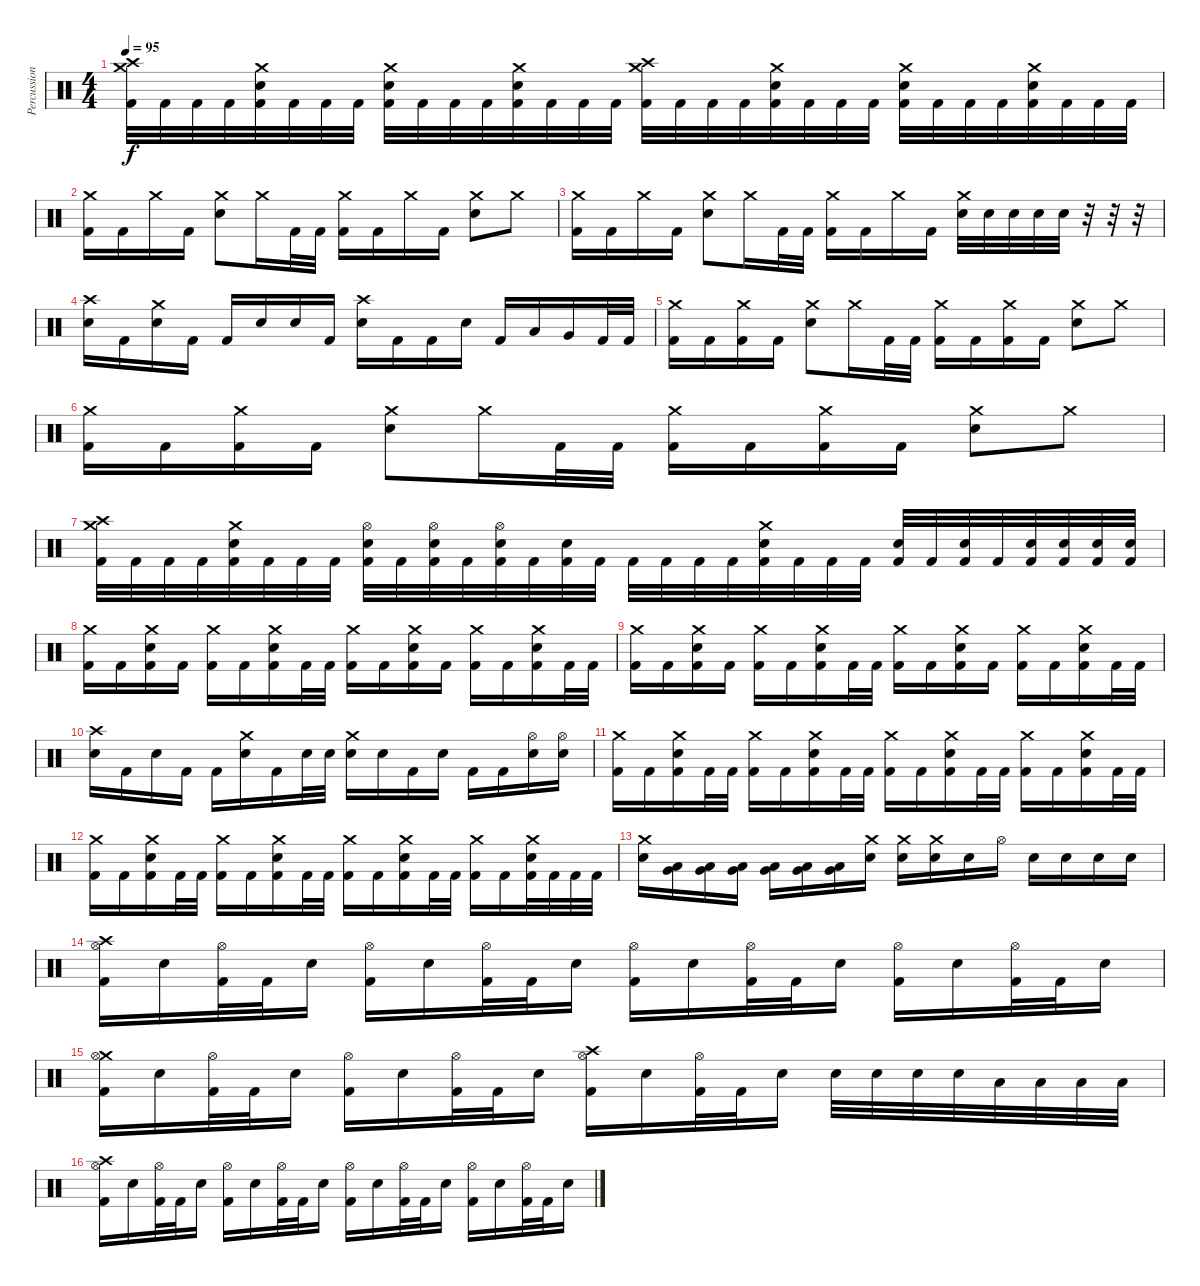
\track ("Percussion" "Percussion") {instrument percussion}
\staff {score}
\articulation defaults
\ts (4 4)
\tempo 95
\clef neutral
\ks c
("Crash high (hit)" "Crash medium (hit)" "Kick (hit) 2").32{dy f} "Kick (hit) 2".32 "Kick (hit) 2".32 "Kick (hit) 2".32 ("Crash medium (hit)" "Electric Snare (hit)" "Kick (hit) 2").32 "Kick (hit) 2".32 "Kick (hit) 2".32 "Kick (hit) 2".32 ("Crash medium (hit)" "Electric Snare (hit)" "Kick (hit) 2").32 "Kick (hit) 2".32 "Kick (hit) 2".32 "Kick (hit) 2".32 ("Crash medium (hit)" "Electric Snare (hit)" "Kick (hit) 2").32 "Kick (hit) 2".32 "Kick (hit) 2".32 "Kick (hit) 2".32 ("Crash high (hit)" "Crash medium (hit)" "Kick (hit) 2").32 "Kick (hit) 2".32 "Kick (hit) 2".32 "Kick (hit) 2".32 ("Crash medium (hit)" "Electric Snare (hit)" "Kick (hit) 2").32 "Kick (hit) 2".32 "Kick (hit) 2".32 "Kick (hit) 2".32 ("Crash medium (hit)" "Electric Snare (hit)" "Kick (hit) 2").32 "Kick (hit) 2".32 "Kick (hit) 2".32 "Kick (hit) 2".32 ("Crash medium (hit)" "Electric Snare (hit)" "Kick (hit) 2").32 "Kick (hit) 2".32 "Kick (hit) 2".32 "Kick (hit) 2".32 |
("Crash medium (hit)" "Kick (hit) 2").16 "Kick (hit) 2".16 "Crash medium (hit)".16 "Kick (hit) 2".16 ("Crash medium (hit)" "Electric Snare (hit)").8 "Crash medium (hit)".16 "Kick (hit) 2".32 "Kick (hit) 2".32 ("Crash medium (hit)" "Kick (hit) 2").16 "Kick (hit) 2".16 "Crash medium (hit)".16 "Kick (hit) 2".16 ("Crash medium (hit)" "Electric Snare (hit)").8 "Crash medium (hit)".8 |
("Crash medium (hit)" "Kick (hit) 2").16 "Kick (hit) 2".16 "Crash medium (hit)".16 "Kick (hit) 2".16 ("Crash medium (hit)" "Electric Snare (hit)").8 "Crash medium (hit)".16 "Kick (hit) 2".32 "Kick (hit) 2".32 ("Crash medium (hit)" "Kick (hit) 2").16 "Kick (hit) 2".16 "Crash medium (hit)".16 "Kick (hit) 2".16 ("Crash medium (hit)" "Electric Snare (hit)").32 "Electric Snare (hit)".32 "Electric Snare (hit)".32 "Electric Snare (hit)".32 "Electric Snare (hit)".32 r.32 r.32 r.32 |
("Crash high (hit)" "Electric Snare (hit)").16 "Kick (hit) 2".16 ("Crash medium (hit)" "Electric Snare (hit)").16 "Kick (hit) 2".16 "Kick (hit) 2".16 "Electric Snare (hit)".16 "Electric Snare (hit)".16 "Kick (hit) 2".16 ("Crash high (hit)" "Electric Snare (hit)").16 "Kick (hit) 2".16 "Kick (hit) 2".16 "Electric Snare (hit)".16 "Kick (hit) 2".16 "Low Tom (hit)".16 "Very Low Tom (hit)".16 "Kick (hit) 2".32 "Kick (hit) 2".32 |
("Crash medium (hit)" "Kick (hit) 2").16 "Kick (hit) 2".16 ("Crash medium (hit)" "Kick (hit) 2").16 "Kick (hit) 2".16 ("Crash medium (hit)" "Electric Snare (hit)").8 "Crash medium (hit)".16 "Kick (hit) 2".32 "Kick (hit) 2".32 ("Crash medium (hit)" "Kick (hit) 2").16 "Kick (hit) 2".16 ("Crash medium (hit)" "Kick (hit) 2").16 "Kick (hit) 2".16 ("Crash medium (hit)" "Electric Snare (hit)").8 "Crash medium (hit)".8 |
("Crash medium (hit)" "Kick (hit) 2").16 "Kick (hit) 2".16 ("Crash medium (hit)" "Kick (hit) 2").16 "Kick (hit) 2".16 ("Crash medium (hit)" "Electric Snare (hit)").8 "Crash medium (hit)".16 "Kick (hit) 2".32 "Kick (hit) 2".32 ("Crash medium (hit)" "Kick (hit) 2").16 "Kick (hit) 2".16 ("Crash medium (hit)" "Kick (hit) 2").16 "Kick (hit) 2".16 ("Crash medium (hit)" "Electric Snare (hit)").8 "Crash medium (hit)".8 |
("Crash high (hit)" "Crash medium (hit)" "Kick (hit) 2").32 "Kick (hit) 2".32 "Kick (hit) 2".32 "Kick (hit) 2".32 ("Crash medium (hit)" "Electric Snare (hit)" "Kick (hit) 2").32 "Kick (hit) 2".32 "Kick (hit) 2".32 "Kick (hit) 2".32 ("Hi-Hat (open)" "Electric Snare (hit)" "Kick (hit) 2").32 "Kick (hit) 2".32 ("Hi-Hat (open)" "Electric Snare (hit)" "Kick (hit) 2").32 "Kick (hit) 2".32 ("Hi-Hat (open)" "Electric Snare (hit)" "Kick (hit) 2").32 "Kick (hit) 2".32 ("Electric Snare (hit)" "Kick (hit) 2").32 "Kick (hit) 2".32 "Kick (hit) 2".32 "Kick (hit) 2".32 "Kick (hit) 2".32 "Kick (hit) 2".32 ("Crash medium (hit)" "Electric Snare (hit)" "Kick (hit) 2").32 "Kick (hit) 2".32 "Kick (hit) 2".32 "Kick (hit) 2".32 ("Electric Snare (hit)" "Kick (hit) 2").32 "Kick (hit) 2".32 ("Electric Snare (hit)" "Kick (hit) 2").32 "Kick (hit) 2".32 ("Electric Snare (hit)" "Kick (hit) 2").32 ("Electric Snare (hit)" "Kick (hit) 2").32 ("Electric Snare (hit)" "Kick (hit) 2").32 ("Electric Snare (hit)" "Kick (hit) 2").32 |
("Crash medium (hit)" "Kick (hit) 2").16 "Kick (hit) 2".16 ("Crash medium (hit)" "Electric Snare (hit)" "Kick (hit) 2").16 "Kick (hit) 2".16 ("Crash medium (hit)" "Kick (hit) 2").16 "Kick (hit) 2".16 ("Crash medium (hit)" "Electric Snare (hit)" "Kick (hit) 2").16 "Kick (hit) 2".32 "Kick (hit) 2".32 ("Crash medium (hit)" "Kick (hit) 2").16 "Kick (hit) 2".16 ("Crash medium (hit)" "Electric Snare (hit)" "Kick (hit) 2").16 "Kick (hit) 2".16 ("Crash medium (hit)" "Kick (hit) 2").16 "Kick (hit) 2".16 ("Crash medium (hit)" "Electric Snare (hit)" "Kick (hit) 2").16 "Kick (hit) 2".32 "Kick (hit) 2".32 |
("Crash medium (hit)" "Kick (hit) 2").16 "Kick (hit) 2".16 ("Crash medium (hit)" "Electric Snare (hit)" "Kick (hit) 2").16 "Kick (hit) 2".16 ("Crash medium (hit)" "Kick (hit) 2").16 "Kick (hit) 2".16 ("Crash medium (hit)" "Electric Snare (hit)" "Kick (hit) 2").16 "Kick (hit) 2".32 "Kick (hit) 2".32 ("Crash medium (hit)" "Kick (hit) 2").16 "Kick (hit) 2".16 ("Crash medium (hit)" "Electric Snare (hit)" "Kick (hit) 2").16 "Kick (hit) 2".16 ("Crash medium (hit)" "Kick (hit) 2").16 "Kick (hit) 2".16 ("Crash medium (hit)" "Electric Snare (hit)" "Kick (hit) 2").16 "Kick (hit) 2".32 "Kick (hit) 2".32 |
("Crash high (hit)" "Electric Snare (hit)").16 "Kick (hit) 2".16 "Electric Snare (hit)".16 "Kick (hit) 2".16 "Kick (hit) 2".16 ("Crash medium (hit)" "Electric Snare (hit)").16 "Kick (hit) 2".16 "Electric Snare (hit)".32 "Electric Snare (hit)".32 ("Crash medium (hit)" "Electric Snare (hit)").16 "Electric Snare (hit)".16 "Kick (hit) 2".16 "Electric Snare (hit)".16 "Kick (hit) 2".16 "Kick (hit) 2".16 ("Hi-Hat (open)" "Electric Snare (hit)").16 ("Hi-Hat (open)" "Electric Snare (hit)").16 |
("Crash medium (hit)" "Kick (hit) 2").16 "Kick (hit) 2".16 ("Crash medium (hit)" "Electric Snare (hit)" "Kick (hit) 2").16 "Kick (hit) 2".32 "Kick (hit) 2".32 ("Crash medium (hit)" "Kick (hit) 2").16 "Kick (hit) 2".16 ("Crash medium (hit)" "Electric Snare (hit)" "Kick (hit) 2").16 "Kick (hit) 2".32 "Kick (hit) 2".32 ("Crash medium (hit)" "Kick (hit) 2").16 "Kick (hit) 2".16 ("Crash medium (hit)" "Electric Snare (hit)" "Kick (hit) 2").16 "Kick (hit) 2".32 "Kick (hit) 2".32 ("Crash medium (hit)" "Kick (hit) 2").16 "Kick (hit) 2".16 ("Crash medium (hit)" "Electric Snare (hit)" "Kick (hit) 2").16 "Kick (hit) 2".32 "Kick (hit) 2".32 |
("Crash medium (hit)" "Kick (hit) 2").16 "Kick (hit) 2".16 ("Crash medium (hit)" "Electric Snare (hit)" "Kick (hit) 2").16 "Kick (hit) 2".32 "Kick (hit) 2".32 ("Crash medium (hit)" "Kick (hit) 2").16 "Kick (hit) 2".16 ("Crash medium (hit)" "Electric Snare (hit)" "Kick (hit) 2").16 "Kick (hit) 2".32 "Kick (hit) 2".32 ("Crash medium (hit)" "Kick (hit) 2").16 "Kick (hit) 2".16 ("Crash medium (hit)" "Electric Snare (hit)" "Kick (hit) 2").16 "Kick (hit) 2".32 "Kick (hit) 2".32 ("Crash medium (hit)" "Kick (hit) 2").16 "Kick (hit) 2".16 ("Crash medium (hit)" "Electric Snare (hit)" "Kick (hit) 2").32 "Kick (hit) 2".32 "Kick (hit) 2".32 "Kick (hit) 2".32 |
("Crash medium (hit)" "Electric Snare (hit)").16 ("Very Low Tom (hit)" "Low Tom (hit)").16 ("Very Low Tom (hit)" "Low Tom (hit)").16 ("Very Low Tom (hit)" "Low Tom (hit)").16 ("Very Low Tom (hit)" "Low Tom (hit)").16 ("Low Floor Tom (hit)" "Very Low Tom (hit)").16 ("Low Floor Tom (hit)" "Very Low Tom (hit)").16 ("Crash medium (hit)" "Electric Snare (hit)").16 ("Crash medium (hit)" "Electric Snare (hit)").16 ("Crash medium (hit)" "Electric Snare (hit)").16 "Electric Snare (hit)".16 "Hi-Hat (open)".16 "Electric Snare (hit)".16 "Electric Snare (hit)".16 "Electric Snare (hit)".16 "Electric Snare (hit)".16 |
("Crash high (hit)" "Hi-Hat (open)" "Kick (hit) 2").16 "Electric Snare (hit)".16 ("Hi-Hat (open)" "Kick (hit) 2").32 "Kick (hit) 2".32 "Electric Snare (hit)".16 ("Hi-Hat (open)" "Kick (hit) 2").16 "Electric Snare (hit)".16 ("Hi-Hat (open)" "Kick (hit) 2").32 "Kick (hit) 2".32 "Electric Snare (hit)".16 ("Hi-Hat (open)" "Kick (hit) 2").16 "Electric Snare (hit)".16 ("Hi-Hat (open)" "Kick (hit) 2").32 "Kick (hit) 2".32 "Electric Snare (hit)".16 ("Hi-Hat (open)" "Kick (hit) 2").16 "Electric Snare (hit)".16 ("Hi-Hat (open)" "Kick (hit) 2").32 "Kick (hit) 2".32 "Electric Snare (hit)".16 |
("Crash medium (hit)" "Hi-Hat (open)" "Kick (hit) 2").16 "Electric Snare (hit)".16 ("Hi-Hat (open)" "Kick (hit) 2").32 "Kick (hit) 2".32 "Electric Snare (hit)".16 ("Hi-Hat (open)" "Kick (hit) 2").16 "Electric Snare (hit)".16 ("Hi-Hat (open)" "Kick (hit) 2").32 "Kick (hit) 2".32 "Electric Snare (hit)".16 ("Crash high (hit)" "Hi-Hat (open)" "Kick (hit) 2").16 "Electric Snare (hit)".16 ("Hi-Hat (open)" "Kick (hit) 2").32 "Kick (hit) 2".32 "Electric Snare (hit)".16 "Electric Snare (hit)".32 "Electric Snare (hit)".32 "Electric Snare (hit)".32 "Electric Snare (hit)".32 "Low Tom (hit)".32 "Low Tom (hit)".32 "Low Tom (hit)".32 "Low Tom (hit)".32 |
("Crash high (hit)" "Hi-Hat (open)" "Kick (hit) 2").16 "Electric Snare (hit)".16 ("Hi-Hat (open)" "Kick (hit) 2").32 "Kick (hit) 2".32 "Electric Snare (hit)".16 ("Hi-Hat (open)" "Kick (hit) 2").16 "Electric Snare (hit)".16 ("Hi-Hat (open)" "Kick (hit) 2").32 "Kick (hit) 2".32 "Electric Snare (hit)".16 ("Hi-Hat (open)" "Kick (hit) 2").16 "Electric Snare (hit)".16 ("Hi-Hat (open)" "Kick (hit) 2").32 "Kick (hit) 2".32 "Electric Snare (hit)".16 ("Hi-Hat (open)" "Kick (hit) 2").16 "Electric Snare (hit)".16 ("Hi-Hat (open)" "Kick (hit) 2").32 "Kick (hit) 2".32 "Electric Snare (hit)".16
